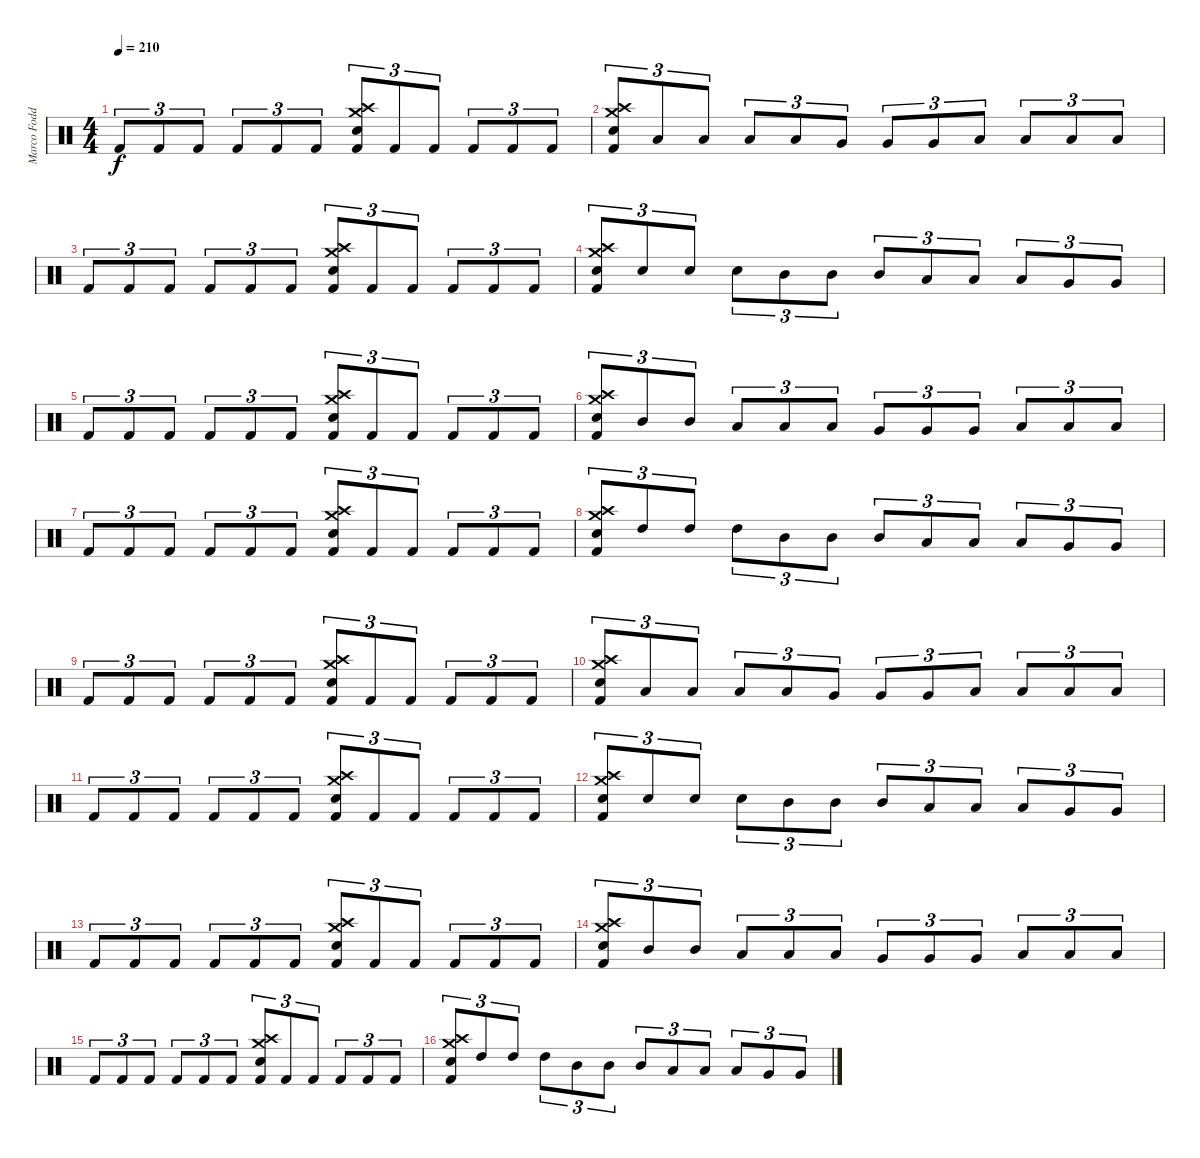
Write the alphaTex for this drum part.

\track ("Marco Foddis " "Marco Fodd") {instrument percussion}
\staff {score}
\articulation defaults
\ts (4 4)
\tempo 210
\clef neutral
\ks c "Kick (hit) 2".8{tu (3 2) dy f} "Kick (hit) 2".8{tu (3 2)} "Kick (hit) 2".8{tu (3 2)} "Kick (hit) 2".8{tu (3 2)} "Kick (hit) 2".8{tu (3 2)} "Kick (hit) 2".8{tu (3 2)}
("Crash high (hit)" "Crash medium (hit)" "Electric Snare (hit)" "Kick (hit) 2").8{tu (3 2)} "Kick (hit) 2".8{tu (3 2)} "Kick (hit) 2".8{tu (3 2)} "Kick (hit) 2".8{tu (3 2)} "Kick (hit) 2".8{tu (3 2)} "Kick (hit) 2".8{tu (3 2)} |
("Crash high (hit)" "Crash medium (hit)" "Electric Snare (hit)" "Kick (hit) 2").8{tu (3 2)} "Low Tom (hit)".8{tu (3 2)} "Low Tom (hit)".8{tu (3 2)} "Low Tom (hit)".8{tu (3 2)} "Low Tom (hit)".8{tu (3 2)} "Very Low Tom (hit)".8{tu (3 2)} "Very Low Tom (hit)".8{tu (3 2)} "Very Low Tom (hit)".8{tu (3 2)} "Low Floor Tom (hit)".8{tu (3 2)} "Low Floor Tom (hit)".8{tu (3 2)} "Low Floor Tom (hit)".8{tu (3 2)} "Low Floor Tom (hit)".8{tu (3 2)} |
"Kick (hit) 2".8{tu (3 2)} "Kick (hit) 2".8{tu (3 2)} "Kick (hit) 2".8{tu (3 2)} "Kick (hit) 2".8{tu (3 2)} "Kick (hit) 2".8{tu (3 2)} "Kick (hit) 2".8{tu (3 2)} ("Crash high (hit)" "Crash medium (hit)" "Electric Snare (hit)" "Kick (hit) 2").8{tu (3 2)} "Kick (hit) 2".8{tu (3 2)} "Kick (hit) 2".8{tu (3 2)} "Kick (hit) 2".8{tu (3 2)} "Kick (hit) 2".8{tu (3 2)} "Kick (hit) 2".8{tu (3 2)} |
("Crash high (hit)" "Crash medium (hit)" "Electric Snare (hit)" "Kick (hit) 2").8{tu (3 2)} "Electric Snare (hit)".8{tu (3 2)} "Electric Snare (hit)".8{tu (3 2)} "Electric Snare (hit)".8{tu (3 2)} "Mid Tom (hit)".8{tu (3 2)} "Mid Tom (hit)".8{tu (3 2)} "Mid Tom (hit)".8{tu (3 2)} "Low Tom (hit)".8{tu (3 2)} "Low Tom (hit)".8{tu (3 2)} "Low Tom (hit)".8{tu (3 2)} "Very Low Tom (hit)".8{tu (3 2)} "Very Low Tom (hit)".8{tu (3 2)} |
"Kick (hit) 2".8{tu (3 2)} "Kick (hit) 2".8{tu (3 2)} "Kick (hit) 2".8{tu (3 2)} "Kick (hit) 2".8{tu (3 2)} "Kick (hit) 2".8{tu (3 2)} "Kick (hit) 2".8{tu (3 2)} ("Crash high (hit)" "Crash medium (hit)" "Electric Snare (hit)" "Kick (hit) 2").8{tu (3 2)} "Kick (hit) 2".8{tu (3 2)} "Kick (hit) 2".8{tu (3 2)} "Kick (hit) 2".8{tu (3 2)} "Kick (hit) 2".8{tu (3 2)} "Kick (hit) 2".8{tu (3 2)} |
("Crash high (hit)" "Crash medium (hit)" "Electric Snare (hit)" "Kick (hit) 2").8{tu (3 2)} "Mid Tom (hit)".8{tu (3 2)} "Mid Tom (hit)".8{tu (3 2)} "Low Tom (hit)".8{tu (3 2)} "Low Tom (hit)".8{tu (3 2)} "Low Tom (hit)".8{tu (3 2)} "Very Low Tom (hit)".8{tu (3 2)} "Very Low Tom (hit)".8{tu (3 2)} "Very Low Tom (hit)".8{tu (3 2)} "Low Floor Tom (hit)".8{tu (3 2)} "Low Floor Tom (hit)".8{tu (3 2)} "Low Floor Tom (hit)".8{tu (3 2)} |
"Kick (hit) 2".8{tu (3 2)} "Kick (hit) 2".8{tu (3 2)} "Kick (hit) 2".8{tu (3 2)} "Kick (hit) 2".8{tu (3 2)} "Kick (hit) 2".8{tu (3 2)} "Kick (hit) 2".8{tu (3 2)} ("Crash high (hit)" "Crash medium (hit)" "Electric Snare (hit)" "Kick (hit) 2").8{tu (3 2)} "Kick (hit) 2".8{tu (3 2)} "Kick (hit) 2".8{tu (3 2)} "Kick (hit) 2".8{tu (3 2)} "Kick (hit) 2".8{tu (3 2)} "Kick (hit) 2".8{tu (3 2)} |
("Crash high (hit)" "Crash medium (hit)" "Electric Snare (hit)" "Kick (hit) 2").8{tu (3 2)} "High Tom (hit)".8{tu (3 2)} "High Tom (hit)".8{tu (3 2)} "High Tom (hit)".8{tu (3 2)} "Mid Tom (hit)".8{tu (3 2)} "Mid Tom (hit)".8{tu (3 2)} "Mid Tom (hit)".8{tu (3 2)} "Low Tom (hit)".8{tu (3 2)} "Low Tom (hit)".8{tu (3 2)} "Low Tom (hit)".8{tu (3 2)} "Very Low Tom (hit)".8{tu (3 2)} "Very Low Tom (hit)".8{tu (3 2)} |
"Kick (hit) 2".8{tu (3 2)} "Kick (hit) 2".8{tu (3 2)} "Kick (hit) 2".8{tu (3 2)} "Kick (hit) 2".8{tu (3 2)} "Kick (hit) 2".8{tu (3 2)} "Kick (hit) 2".8{tu (3 2)} ("Crash high (hit)" "Crash medium (hit)" "Electric Snare (hit)" "Kick (hit) 2").8{tu (3 2)} "Kick (hit) 2".8{tu (3 2)} "Kick (hit) 2".8{tu (3 2)} "Kick (hit) 2".8{tu (3 2)} "Kick (hit) 2".8{tu (3 2)} "Kick (hit) 2".8{tu (3 2)} |
("Crash high (hit)" "Crash medium (hit)" "Electric Snare (hit)" "Kick (hit) 2").8{tu (3 2)} "Low Tom (hit)".8{tu (3 2)} "Low Tom (hit)".8{tu (3 2)} "Low Tom (hit)".8{tu (3 2)} "Low Tom (hit)".8{tu (3 2)} "Very Low Tom (hit)".8{tu (3 2)} "Very Low Tom (hit)".8{tu (3 2)} "Very Low Tom (hit)".8{tu (3 2)} "Low Floor Tom (hit)".8{tu (3 2)} "Low Floor Tom (hit)".8{tu (3 2)} "Low Floor Tom (hit)".8{tu (3 2)} "Low Floor Tom (hit)".8{tu (3 2)} |
"Kick (hit) 2".8{tu (3 2)} "Kick (hit) 2".8{tu (3 2)} "Kick (hit) 2".8{tu (3 2)} "Kick (hit) 2".8{tu (3 2)} "Kick (hit) 2".8{tu (3 2)} "Kick (hit) 2".8{tu (3 2)} ("Crash high (hit)" "Crash medium (hit)" "Electric Snare (hit)" "Kick (hit) 2").8{tu (3 2)} "Kick (hit) 2".8{tu (3 2)} "Kick (hit) 2".8{tu (3 2)} "Kick (hit) 2".8{tu (3 2)} "Kick (hit) 2".8{tu (3 2)} "Kick (hit) 2".8{tu (3 2)} |
("Crash high (hit)" "Crash medium (hit)" "Electric Snare (hit)" "Kick (hit) 2").8{tu (3 2)} "Electric Snare (hit)".8{tu (3 2)} "Electric Snare (hit)".8{tu (3 2)} "Electric Snare (hit)".8{tu (3 2)} "Mid Tom (hit)".8{tu (3 2)} "Mid Tom (hit)".8{tu (3 2)} "Mid Tom (hit)".8{tu (3 2)} "Low Tom (hit)".8{tu (3 2)} "Low Tom (hit)".8{tu (3 2)} "Low Tom (hit)".8{tu (3 2)} "Very Low Tom (hit)".8{tu (3 2)} "Very Low Tom (hit)".8{tu (3 2)} |
"Kick (hit) 2".8{tu (3 2)} "Kick (hit) 2".8{tu (3 2)} "Kick (hit) 2".8{tu (3 2)} "Kick (hit) 2".8{tu (3 2)} "Kick (hit) 2".8{tu (3 2)} "Kick (hit) 2".8{tu (3 2)} ("Crash high (hit)" "Crash medium (hit)" "Electric Snare (hit)" "Kick (hit) 2").8{tu (3 2)} "Kick (hit) 2".8{tu (3 2)} "Kick (hit) 2".8{tu (3 2)} "Kick (hit) 2".8{tu (3 2)} "Kick (hit) 2".8{tu (3 2)} "Kick (hit) 2".8{tu (3 2)} |
("Crash high (hit)" "Crash medium (hit)" "Electric Snare (hit)" "Kick (hit) 2").8{tu (3 2)} "Mid Tom (hit)".8{tu (3 2)} "Mid Tom (hit)".8{tu (3 2)} "Low Tom (hit)".8{tu (3 2)} "Low Tom (hit)".8{tu (3 2)} "Low Tom (hit)".8{tu (3 2)} "Very Low Tom (hit)".8{tu (3 2)} "Very Low Tom (hit)".8{tu (3 2)} "Very Low Tom (hit)".8{tu (3 2)} "Low Floor Tom (hit)".8{tu (3 2)} "Low Floor Tom (hit)".8{tu (3 2)} "Low Floor Tom (hit)".8{tu (3 2)} |
"Kick (hit) 2".8{tu (3 2)} "Kick (hit) 2".8{tu (3 2)} "Kick (hit) 2".8{tu (3 2)} "Kick (hit) 2".8{tu (3 2)} "Kick (hit) 2".8{tu (3 2)} "Kick (hit) 2".8{tu (3 2)} ("Crash high (hit)" "Crash medium (hit)" "Electric Snare (hit)" "Kick (hit) 2").8{tu (3 2)} "Kick (hit) 2".8{tu (3 2)} "Kick (hit) 2".8{tu (3 2)} "Kick (hit) 2".8{tu (3 2)} "Kick (hit) 2".8{tu (3 2)} "Kick (hit) 2".8{tu (3 2)} |
("Crash high (hit)" "Crash medium (hit)" "Electric Snare (hit)" "Kick (hit) 2").8{tu (3 2)} "High Tom (hit)".8{tu (3 2)} "High Tom (hit)".8{tu (3 2)} "High Tom (hit)".8{tu (3 2)} "Mid Tom (hit)".8{tu (3 2)} "Mid Tom (hit)".8{tu (3 2)} "Mid Tom (hit)".8{tu (3 2)} "Low Tom (hit)".8{tu (3 2)} "Low Tom (hit)".8{tu (3 2)} "Low Tom (hit)".8{tu (3 2)} "Very Low Tom (hit)".8{tu (3 2)} "Very Low Tom (hit)".8{tu (3 2)}
